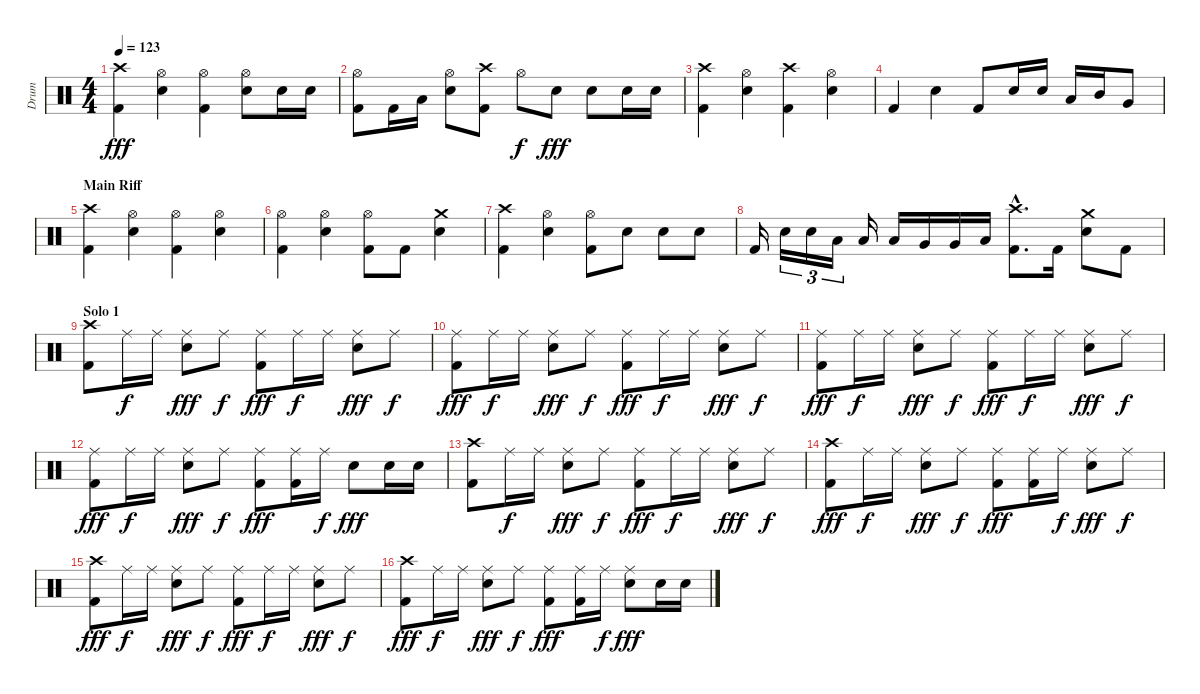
\track ("Drum" "Drum") {instrument percussion}
\staff {score}
\articulation defaults
\ts (4 4)
\tempo 123
\clef neutral
\ks c
("Crash high (hit)" "Kick (hit) 2").4{dy fff} ("Hi-Hat (open)" "Electric Snare (hit)").4 ("Hi-Hat (open)" "Kick (hit) 2").4 ("Hi-Hat (open)" "Electric Snare (hit)").8 "Electric Snare (hit)".16 "Electric Snare (hit)".16 |
("Hi-Hat (open)" "Kick (hit) 2").8 "Kick (hit) 2".16 "Low Tom (hit)".16 ("Hi-Hat (open)" "Electric Snare (hit)").8 ("Crash high (hit)" "Kick (hit) 2").8 "Hi-Hat (open)".8{dy f} "Electric Snare (hit)".8{dy fff} "Electric Snare (hit)".8 "Electric Snare (hit)".16 "Electric Snare (hit)".16 |
("Crash high (hit)" "Kick (hit) 2").4 ("Hi-Hat (open)" "Electric Snare (hit)").4 ("Crash high (hit)" "Kick (hit) 2").4 ("Hi-Hat (open)" "Electric Snare (hit)").4 |
"Kick (hit) 2".4 "Electric Snare (hit)".4 "Kick (hit) 2".8 "Electric Snare (hit)".16 "Electric Snare (hit)".16 "Low Tom (hit)".16 "Mid Tom (hit)".16 "Very Low Tom (hit)".8 |
\section ("" "Main Riff")
("Crash high (hit)" "Kick (hit) 2").4 ("Hi-Hat (open)" "Electric Snare (hit)").4 ("Hi-Hat (open)" "Kick (hit) 2").4 ("Hi-Hat (open)" "Electric Snare (hit)").4 |
("Hi-Hat (open)" "Kick (hit) 2").4 ("Hi-Hat (open)" "Electric Snare (hit)").4 ("Hi-Hat (open)" "Kick (hit) 2").8 "Kick (hit) 2".8 ("Crash medium (hit)" "Electric Snare (hit)").4 |
("Crash high (hit)" "Kick (hit) 2").4 ("Hi-Hat (open)" "Electric Snare (hit)").4 ("Hi-Hat (open)" "Kick (hit) 2").8 "Electric Snare (hit)".8 "Electric Snare (hit)".8 "Electric Snare (hit)".8 |
"Kick (hit) 2".16 "Electric Snare (hit)".16{tu (3 2)} "Electric Snare (hit)".16{tu (3 2)} "Low Tom (hit)".16{tu (3 2)} "Low Tom (hit)".16 "Low Tom (hit)".16 "Very Low Tom (hit)".16 "Very Low Tom (hit)".16 "Low Floor Tom (hit)".16 ("Crash high (hit)"{hac} "Kick (hit) 2"{hac}).8{d} "Kick (hit) 2".16 ("Crash medium (hit)" "Electric Snare (hit)").8 "Kick (hit) 2".8 |
\section ("" "Solo 1")
("Crash high (hit)" "Kick (hit) 2").8 "Ride (middle)".16{dy f} "Ride (middle)".16 ("Ride (middle)" "Electric Snare (hit)").8{dy fff} "Ride (middle)".8{dy f} ("Ride (middle)" "Kick (hit) 2").8{dy fff} "Ride (middle)".16{dy f} "Ride (middle)".16 ("Ride (middle)" "Electric Snare (hit)").8{dy fff} "Ride (middle)".8{dy f} |
("Ride (middle)" "Kick (hit) 2").8{dy fff} "Ride (middle)".16{dy f} "Ride (middle)".16 ("Ride (middle)" "Electric Snare (hit)").8{dy fff} "Ride (middle)".8{dy f} ("Ride (middle)" "Kick (hit) 2").8{dy fff} "Ride (middle)".16{dy f} "Ride (middle)".16 ("Ride (middle)" "Electric Snare (hit)").8{dy fff} "Ride (middle)".8{dy f} |
("Ride (middle)" "Kick (hit) 2").8{dy fff} "Ride (middle)".16{dy f} "Ride (middle)".16 ("Ride (middle)" "Electric Snare (hit)").8{dy fff} "Ride (middle)".8{dy f} ("Ride (middle)" "Kick (hit) 2").8{dy fff} "Ride (middle)".16{dy f} "Ride (middle)".16 ("Ride (middle)" "Electric Snare (hit)").8{dy fff} "Ride (middle)".8{dy f} |
("Ride (middle)" "Kick (hit) 2").8{dy fff} "Ride (middle)".16{dy f} "Ride (middle)".16 ("Ride (middle)" "Electric Snare (hit)").8{dy fff} "Ride (middle)".8{dy f} ("Ride (middle)" "Kick (hit) 2").8{dy fff} ("Ride (middle)" "Kick (hit) 2").16 "Ride (middle)".16{dy f} "Electric Snare (hit)".8{dy fff} "Electric Snare (hit)".16 "Electric Snare (hit)".16 |
("Crash high (hit)" "Kick (hit) 2").8 "Ride (middle)".16{dy f} "Ride (middle)".16 ("Ride (middle)" "Electric Snare (hit)").8{dy fff} "Ride (middle)".8{dy f} ("Ride (middle)" "Kick (hit) 2").8{dy fff} "Ride (middle)".16{dy f} "Ride (middle)".16 ("Ride (middle)" "Electric Snare (hit)").8{dy fff} "Ride (middle)".8{dy f} |
("Crash high (hit)" "Kick (hit) 2").8{dy fff} "Ride (middle)".16{dy f} "Ride (middle)".16 ("Ride (middle)" "Electric Snare (hit)").8{dy fff} "Ride (middle)".8{dy f} ("Ride (middle)" "Kick (hit) 2").8{dy fff} ("Ride (middle)" "Kick (hit) 2").16 "Ride (middle)".16{dy f} ("Ride (middle)" "Electric Snare (hit)").8{dy fff} "Ride (middle)".8{dy f} |
("Crash high (hit)" "Kick (hit) 2").8{dy fff} "Ride (middle)".16{dy f} "Ride (middle)".16 ("Ride (middle)" "Electric Snare (hit)").8{dy fff} "Ride (middle)".8{dy f} ("Ride (middle)" "Kick (hit) 2").8{dy fff} "Ride (middle)".16{dy f} "Ride (middle)".16 ("Ride (middle)" "Electric Snare (hit)").8{dy fff} "Ride (middle)".8{dy f} |
("Crash high (hit)" "Kick (hit) 2").8{dy fff} "Ride (middle)".16{dy f} "Ride (middle)".16 ("Ride (middle)" "Electric Snare (hit)").8{dy fff} "Ride (middle)".8{dy f} ("Ride (middle)" "Kick (hit) 2").8{dy fff} ("Ride (middle)" "Kick (hit) 2").16 "Ride (middle)".16{dy f} ("Ride (middle)" "Electric Snare (hit)").8{dy fff} "Electric Snare (hit)".16 "Electric Snare (hit)".16
